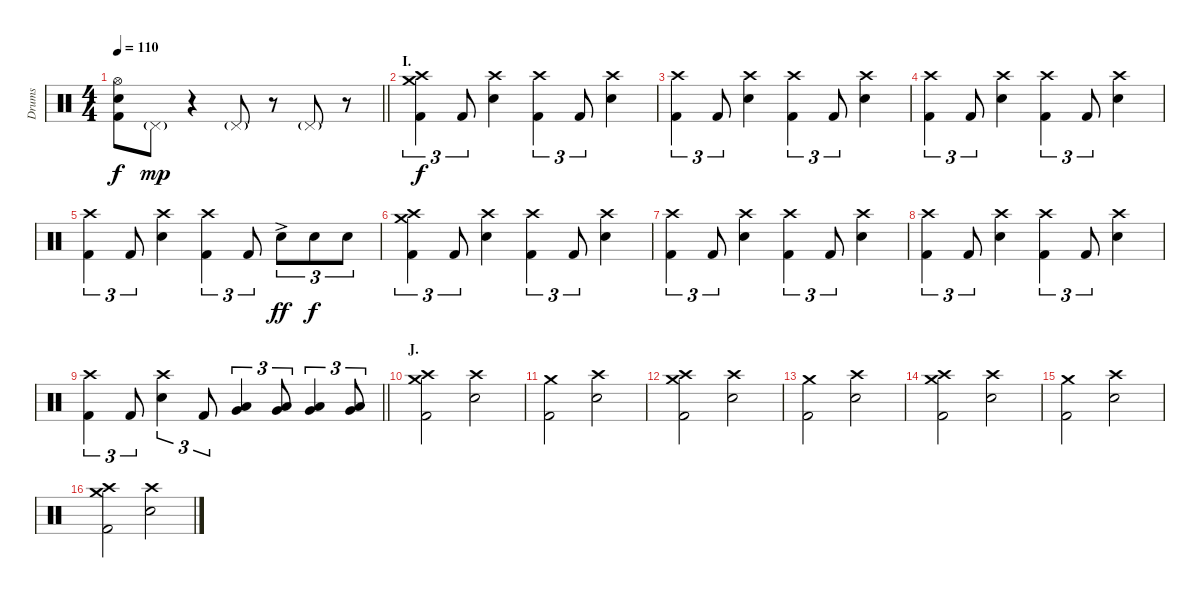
\track ("Drums" "Drums") {instrument percussion}
\staff {score}
\articulation defaults
\ts (4 4)
\tempo 110
\clef neutral
\barLineRight lightlight
\ks c
("Hi-Hat (open)" "Electric Snare (hit)" "Kick (hit) 2").8{dy f} "Pedal Hi-Hat (hit)"{g}.8{dy mp} r.4 "Pedal Hi-Hat (hit)"{g}.8 r.8 "Pedal Hi-Hat (hit)"{g}.8 r.8 |
\section ("" "I.")
("Crash medium (hit)" "Crash high (hit)" "Kick (hit) 2").4{tu (3 2) dy f} "Kick (hit) 2".8{tu (3 2)} ("Crash high (hit)" "Electric Snare (hit)").4 ("Crash high (hit)" "Kick (hit) 2").4{tu (3 2)} "Kick (hit) 2".8{tu (3 2)} ("Crash high (hit)" "Electric Snare (hit)").4 |
("Crash high (hit)" "Kick (hit) 2").4{tu (3 2)} "Kick (hit) 2".8{tu (3 2)} ("Crash high (hit)" "Electric Snare (hit)").4 ("Crash high (hit)" "Kick (hit) 2").4{tu (3 2)} "Kick (hit) 2".8{tu (3 2)} ("Crash high (hit)" "Electric Snare (hit)").4 |
("Crash high (hit)" "Kick (hit) 2").4{tu (3 2)} "Kick (hit) 2".8{tu (3 2)} ("Crash high (hit)" "Electric Snare (hit)").4 ("Crash high (hit)" "Kick (hit) 2").4{tu (3 2)} "Kick (hit) 2".8{tu (3 2)} ("Crash high (hit)" "Electric Snare (hit)").4 |
("Crash high (hit)" "Kick (hit) 2").4{tu (3 2)} "Kick (hit) 2".8{tu (3 2)} ("Crash high (hit)" "Electric Snare (hit)").4 ("Crash high (hit)" "Kick (hit) 2").4{tu (3 2)} "Kick (hit) 2".8{tu (3 2)} "Electric Snare (hit)"{ac}.8{tu (3 2) dy ff} "Electric Snare (hit)".8{tu (3 2) dy f} "Electric Snare (hit)".8{tu (3 2)} |
("Crash medium (hit)" "Crash high (hit)" "Kick (hit) 2").4{tu (3 2)} "Kick (hit) 2".8{tu (3 2)} ("Crash high (hit)" "Electric Snare (hit)").4 ("Crash high (hit)" "Kick (hit) 2").4{tu (3 2)} "Kick (hit) 2".8{tu (3 2)} ("Crash high (hit)" "Electric Snare (hit)").4 |
("Crash high (hit)" "Kick (hit) 2").4{tu (3 2)} "Kick (hit) 2".8{tu (3 2)} ("Crash high (hit)" "Electric Snare (hit)").4 ("Crash high (hit)" "Kick (hit) 2").4{tu (3 2)} "Kick (hit) 2".8{tu (3 2)} ("Crash high (hit)" "Electric Snare (hit)").4 |
("Crash high (hit)" "Kick (hit) 2").4{tu (3 2)} "Kick (hit) 2".8{tu (3 2)} ("Crash high (hit)" "Electric Snare (hit)").4 ("Crash high (hit)" "Kick (hit) 2").4{tu (3 2)} "Kick (hit) 2".8{tu (3 2)} ("Crash high (hit)" "Electric Snare (hit)").4 |
\barLineRight lightlight
("Crash high (hit)" "Kick (hit) 2").4{tu (3 2)} "Kick (hit) 2".8{tu (3 2)} ("Crash high (hit)" "Electric Snare (hit)").4{tu (3 2)} "Kick (hit) 2".8{tu (3 2)} ("Low Tom (hit)" "Very Low Tom (hit)").4{tu (3 2)} ("Low Tom (hit)" "Very Low Tom (hit)").8{tu (3 2)} ("Very Low Tom (hit)" "Low Floor Tom (hit)").4{tu (3 2)} ("Very Low Tom (hit)" "Low Floor Tom (hit)").8{tu (3 2)} |
\section ("" "J.")
("Crash medium (hit)" "Crash high (hit)" "Kick (hit) 2").2 ("Crash high (hit)" "Electric Snare (hit)").2 |
("Crash medium (hit)" "Kick (hit) 2").2 ("Crash high (hit)" "Electric Snare (hit)").2 |
("Crash medium (hit)" "Crash high (hit)" "Kick (hit) 2").2 ("Crash high (hit)" "Electric Snare (hit)").2 |
("Crash medium (hit)" "Kick (hit) 2").2 ("Crash high (hit)" "Electric Snare (hit)").2 |
("Crash medium (hit)" "Crash high (hit)" "Kick (hit) 2").2 ("Crash high (hit)" "Electric Snare (hit)").2 |
("Crash medium (hit)" "Kick (hit) 2").2 ("Crash high (hit)" "Electric Snare (hit)").2 |
("Crash medium (hit)" "Crash high (hit)" "Kick (hit) 2").2 ("Crash high (hit)" "Electric Snare (hit)").2
